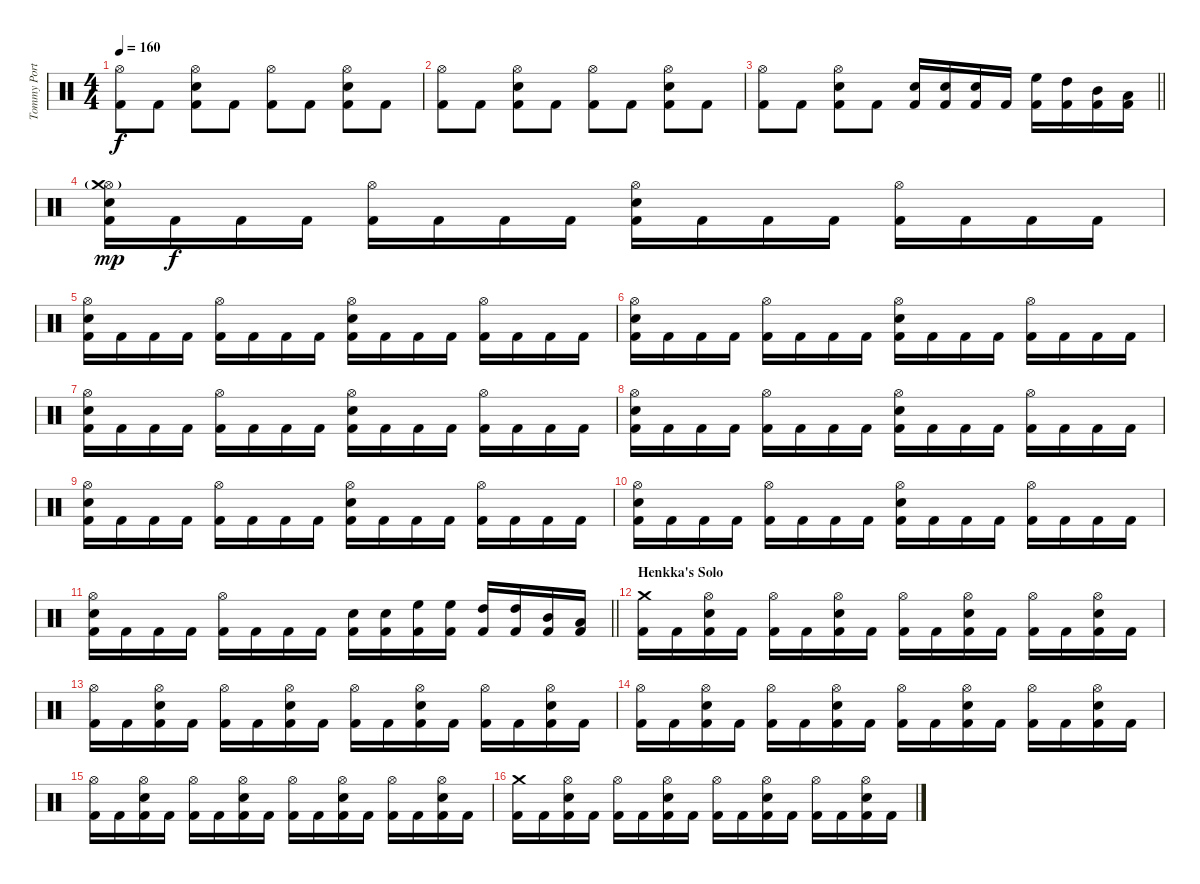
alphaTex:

\track ("Tommy Portino" "Tommy Port") {instrument percussion}
\staff {score}
\articulation defaults
\ts (4 4)
\tempo 160
\clef neutral
\ks c
("Hi-Hat (open)" "Kick (hit) 2").8{dy f} "Kick (hit) 2".8 ("Hi-Hat (open)" "Snare (hit) 2" "Kick (hit) 2").8 "Kick (hit) 2".8 ("Hi-Hat (open)" "Kick (hit) 2").8 "Kick (hit) 2".8 ("Hi-Hat (open)" "Snare (hit) 2" "Kick (hit) 2").8 "Kick (hit) 2".8 |
("Hi-Hat (open)" "Kick (hit) 2").8 "Kick (hit) 2".8 ("Hi-Hat (open)" "Snare (hit) 2" "Kick (hit) 2").8 "Kick (hit) 2".8 ("Hi-Hat (open)" "Kick (hit) 2").8 "Kick (hit) 2".8 ("Hi-Hat (open)" "Snare (hit) 2" "Kick (hit) 2").8 "Kick (hit) 2".8 |
\barLineRight lightlight
("Hi-Hat (open)" "Kick (hit) 2").8 "Kick (hit) 2".8 ("Hi-Hat (open)" "Snare (hit) 2" "Kick (hit) 2").8 "Kick (hit) 2".8 ("Snare (hit) 2" "Kick (hit) 2").16 ("Snare (hit) 2" "Kick (hit) 2").16 ("Snare (hit) 2" "Kick (hit) 2").16 "Kick (hit) 2".16 ("High Floor Tom (hit)" "Kick (hit) 2").16 ("High Tom (hit)" "Kick (hit) 2").16 ("Mid Tom (hit)" "Kick (hit) 2").16 ("Low Tom (hit)" "Kick (hit) 2").16 |
("Hi-Hat (open)"{g} "Crash medium (hit)" "Snare (hit) 2" "Kick (hit) 2").16{dy mp} "Kick (hit) 2".16{dy f} "Kick (hit) 2".16 "Kick (hit) 2".16 ("Hi-Hat (open)" "Kick (hit) 2").16 "Kick (hit) 2".16 "Kick (hit) 2".16 "Kick (hit) 2".16 ("Hi-Hat (open)" "Snare (hit) 2" "Kick (hit) 2").16 "Kick (hit) 2".16 "Kick (hit) 2".16 "Kick (hit) 2".16 ("Hi-Hat (open)" "Kick (hit) 2").16 "Kick (hit) 2".16 "Kick (hit) 2".16 "Kick (hit) 2".16 |
("Hi-Hat (open)" "Snare (hit) 2" "Kick (hit) 2").16 "Kick (hit) 2".16 "Kick (hit) 2".16 "Kick (hit) 2".16 ("Hi-Hat (open)" "Kick (hit) 2").16 "Kick (hit) 2".16 "Kick (hit) 2".16 "Kick (hit) 2".16 ("Hi-Hat (open)" "Snare (hit) 2" "Kick (hit) 2").16 "Kick (hit) 2".16 "Kick (hit) 2".16 "Kick (hit) 2".16 ("Hi-Hat (open)" "Kick (hit) 2").16 "Kick (hit) 2".16 "Kick (hit) 2".16 "Kick (hit) 2".16 |
("Hi-Hat (open)" "Snare (hit) 2" "Kick (hit) 2").16 "Kick (hit) 2".16 "Kick (hit) 2".16 "Kick (hit) 2".16 ("Hi-Hat (open)" "Kick (hit) 2").16 "Kick (hit) 2".16 "Kick (hit) 2".16 "Kick (hit) 2".16 ("Hi-Hat (open)" "Snare (hit) 2" "Kick (hit) 2").16 "Kick (hit) 2".16 "Kick (hit) 2".16 "Kick (hit) 2".16 ("Hi-Hat (open)" "Kick (hit) 2").16 "Kick (hit) 2".16 "Kick (hit) 2".16 "Kick (hit) 2".16 |
("Hi-Hat (open)" "Snare (hit) 2" "Kick (hit) 2").16 "Kick (hit) 2".16 "Kick (hit) 2".16 "Kick (hit) 2".16 ("Hi-Hat (open)" "Kick (hit) 2").16 "Kick (hit) 2".16 "Kick (hit) 2".16 "Kick (hit) 2".16 ("Hi-Hat (open)" "Snare (hit) 2" "Kick (hit) 2").16 "Kick (hit) 2".16 "Kick (hit) 2".16 "Kick (hit) 2".16 ("Hi-Hat (open)" "Kick (hit) 2").16 "Kick (hit) 2".16 "Kick (hit) 2".16 "Kick (hit) 2".16 |
("Hi-Hat (open)" "Snare (hit) 2" "Kick (hit) 2").16 "Kick (hit) 2".16 "Kick (hit) 2".16 "Kick (hit) 2".16 ("Hi-Hat (open)" "Kick (hit) 2").16 "Kick (hit) 2".16 "Kick (hit) 2".16 "Kick (hit) 2".16 ("Hi-Hat (open)" "Snare (hit) 2" "Kick (hit) 2").16 "Kick (hit) 2".16 "Kick (hit) 2".16 "Kick (hit) 2".16 ("Hi-Hat (open)" "Kick (hit) 2").16 "Kick (hit) 2".16 "Kick (hit) 2".16 "Kick (hit) 2".16 |
("Hi-Hat (open)" "Snare (hit) 2" "Kick (hit) 2").16 "Kick (hit) 2".16 "Kick (hit) 2".16 "Kick (hit) 2".16 ("Hi-Hat (open)" "Kick (hit) 2").16 "Kick (hit) 2".16 "Kick (hit) 2".16 "Kick (hit) 2".16 ("Hi-Hat (open)" "Snare (hit) 2" "Kick (hit) 2").16 "Kick (hit) 2".16 "Kick (hit) 2".16 "Kick (hit) 2".16 ("Hi-Hat (open)" "Kick (hit) 2").16 "Kick (hit) 2".16 "Kick (hit) 2".16 "Kick (hit) 2".16 |
("Hi-Hat (open)" "Snare (hit) 2" "Kick (hit) 2").16 "Kick (hit) 2".16 "Kick (hit) 2".16 "Kick (hit) 2".16 ("Hi-Hat (open)" "Kick (hit) 2").16 "Kick (hit) 2".16 "Kick (hit) 2".16 "Kick (hit) 2".16 ("Hi-Hat (open)" "Snare (hit) 2" "Kick (hit) 2").16 "Kick (hit) 2".16 "Kick (hit) 2".16 "Kick (hit) 2".16 ("Hi-Hat (open)" "Kick (hit) 2").16 "Kick (hit) 2".16 "Kick (hit) 2".16 "Kick (hit) 2".16 |
\barLineRight lightlight
("Hi-Hat (open)" "Snare (hit) 2" "Kick (hit) 2").16 "Kick (hit) 2".16 "Kick (hit) 2".16 "Kick (hit) 2".16 ("Hi-Hat (open)" "Kick (hit) 2").16 "Kick (hit) 2".16 "Kick (hit) 2".16 "Kick (hit) 2".16 ("Snare (hit) 2" "Kick (hit) 2").16 ("Snare (hit) 2" "Kick (hit) 2").16 ("High Floor Tom (hit)" "Kick (hit) 2").16 ("High Floor Tom (hit)" "Kick (hit) 2").16 ("High Tom (hit)" "Kick (hit) 2").16 ("High Tom (hit)" "Kick (hit) 2").16 ("Mid Tom (hit)" "Kick (hit) 2").16 ("Low Tom (hit)" "Kick (hit) 2").16 |
\section ("" "Henkka's Solo")
("Crash medium (hit)" "Kick (hit) 2").16{volume 10} "Kick (hit) 2".16 ("Hi-Hat (open)" "Snare (hit) 2" "Kick (hit) 2").16 "Kick (hit) 2".16 ("Hi-Hat (open)" "Kick (hit) 2").16 "Kick (hit) 2".16 ("Hi-Hat (open)" "Snare (hit) 2" "Kick (hit) 2").16 "Kick (hit) 2".16 ("Hi-Hat (open)" "Kick (hit) 2").16 "Kick (hit) 2".16 ("Hi-Hat (open)" "Snare (hit) 2" "Kick (hit) 2").16 "Kick (hit) 2".16 ("Hi-Hat (open)" "Kick (hit) 2").16 "Kick (hit) 2".16 ("Hi-Hat (open)" "Snare (hit) 2" "Kick (hit) 2").16 "Kick (hit) 2".16 |
("Hi-Hat (open)" "Kick (hit) 2").16 "Kick (hit) 2".16 ("Hi-Hat (open)" "Snare (hit) 2" "Kick (hit) 2").16 "Kick (hit) 2".16 ("Hi-Hat (open)" "Kick (hit) 2").16 "Kick (hit) 2".16 ("Hi-Hat (open)" "Snare (hit) 2" "Kick (hit) 2").16 "Kick (hit) 2".16 ("Hi-Hat (open)" "Kick (hit) 2").16 "Kick (hit) 2".16 ("Hi-Hat (open)" "Snare (hit) 2" "Kick (hit) 2").16 "Kick (hit) 2".16 ("Hi-Hat (open)" "Kick (hit) 2").16 "Kick (hit) 2".16 ("Hi-Hat (open)" "Snare (hit) 2" "Kick (hit) 2").16 "Kick (hit) 2".16 |
("Hi-Hat (open)" "Kick (hit) 2").16 "Kick (hit) 2".16 ("Hi-Hat (open)" "Snare (hit) 2" "Kick (hit) 2").16 "Kick (hit) 2".16 ("Hi-Hat (open)" "Kick (hit) 2").16 "Kick (hit) 2".16 ("Hi-Hat (open)" "Snare (hit) 2" "Kick (hit) 2").16 "Kick (hit) 2".16 ("Hi-Hat (open)" "Kick (hit) 2").16 "Kick (hit) 2".16 ("Hi-Hat (open)" "Snare (hit) 2" "Kick (hit) 2").16 "Kick (hit) 2".16 ("Hi-Hat (open)" "Kick (hit) 2").16 "Kick (hit) 2".16 ("Hi-Hat (open)" "Snare (hit) 2" "Kick (hit) 2").16 "Kick (hit) 2".16 |
("Hi-Hat (open)" "Kick (hit) 2").16 "Kick (hit) 2".16 ("Hi-Hat (open)" "Snare (hit) 2" "Kick (hit) 2").16 "Kick (hit) 2".16 ("Hi-Hat (open)" "Kick (hit) 2").16 "Kick (hit) 2".16 ("Hi-Hat (open)" "Snare (hit) 2" "Kick (hit) 2").16 "Kick (hit) 2".16 ("Hi-Hat (open)" "Kick (hit) 2").16 "Kick (hit) 2".16 ("Hi-Hat (open)" "Snare (hit) 2" "Kick (hit) 2").16 "Kick (hit) 2".16 ("Hi-Hat (open)" "Kick (hit) 2").16 "Kick (hit) 2".16 ("Hi-Hat (open)" "Snare (hit) 2" "Kick (hit) 2").16 "Kick (hit) 2".16 |
("Crash medium (hit)" "Kick (hit) 2").16 "Kick (hit) 2".16 ("Hi-Hat (open)" "Snare (hit) 2" "Kick (hit) 2").16 "Kick (hit) 2".16 ("Hi-Hat (open)" "Kick (hit) 2").16 "Kick (hit) 2".16 ("Hi-Hat (open)" "Snare (hit) 2" "Kick (hit) 2").16 "Kick (hit) 2".16 ("Hi-Hat (open)" "Kick (hit) 2").16 "Kick (hit) 2".16 ("Hi-Hat (open)" "Snare (hit) 2" "Kick (hit) 2").16 "Kick (hit) 2".16 ("Hi-Hat (open)" "Kick (hit) 2").16 "Kick (hit) 2".16 ("Hi-Hat (open)" "Snare (hit) 2" "Kick (hit) 2").16 "Kick (hit) 2".16
